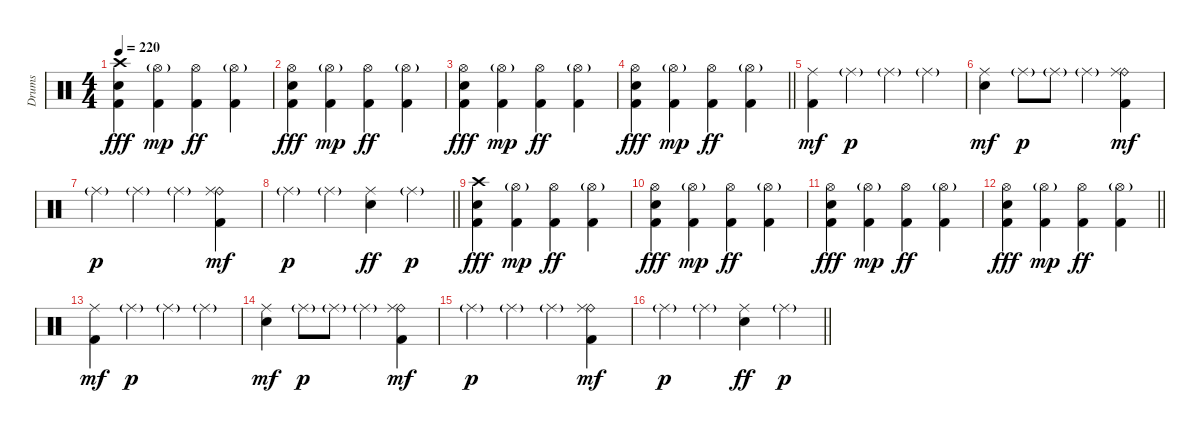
\track ("Drums" "Drums") {instrument percussion}
\staff {score}
\articulation defaults
\ts (4 4)
\tempo 220
\clef neutral
\ks c
("Crash high (hit)" "Snare (hit) 2" "Kick (hit) 2").4{dy fff} ("Hi-Hat (open)"{g} "Kick (hit) 2").4{dy mp} ("Hi-Hat (open)" "Kick (hit) 2").4{dy ff} ("Hi-Hat (open)"{g} "Kick (hit) 2").4 |
("Hi-Hat (open)" "Snare (hit) 2" "Kick (hit) 2").4{dy fff} ("Hi-Hat (open)"{g} "Kick (hit) 2").4{dy mp} ("Hi-Hat (open)" "Kick (hit) 2").4{dy ff} ("Hi-Hat (open)"{g} "Kick (hit) 2").4 |
("Hi-Hat (open)" "Snare (hit) 2" "Kick (hit) 2").4{dy fff} ("Hi-Hat (open)"{g} "Kick (hit) 2").4{dy mp} ("Hi-Hat (open)" "Kick (hit) 2").4{dy ff} ("Hi-Hat (open)"{g} "Kick (hit) 2").4 |
\barLineRight lightlight
("Hi-Hat (open)" "Snare (hit) 2" "Kick (hit) 2").4{dy fff} ("Hi-Hat (open)"{g} "Kick (hit) 2").4{dy mp} ("Hi-Hat (open)" "Kick (hit) 2").4{dy ff} ("Hi-Hat (open)"{g} "Kick (hit) 2").4 |
("Ride (middle)" "Kick (hit) 2").4{dy mf} "Ride (middle)"{g}.4{dy p} "Ride (middle)"{g}.4 "Ride (middle)"{g}.4 |
("Ride (middle)" "Snare (hit) 2").4{dy mf} "Ride (middle)"{g}.8{dy p} "Ride (middle)"{g}.8 "Ride (middle)"{g}.4 ("Ride (bell)" "Ride (middle)" "Kick (hit) 2").4{dy mf} |
"Ride (middle)"{g}.4{dy p} "Ride (middle)"{g}.4 "Ride (middle)"{g}.4 ("Ride (bell)" "Ride (middle)" "Kick (hit) 2").4{dy mf} |
\barLineRight lightlight "Ride (middle)"{g}.4{dy p} "Ride (middle)"{g}.4
("Ride (middle)" "Snare (hit) 2").4{dy ff} "Ride (middle)"{g}.4{dy p} |
("Crash high (hit)" "Snare (hit) 2" "Kick (hit) 2").4{dy fff} ("Hi-Hat (open)"{g} "Kick (hit) 2").4{dy mp} ("Hi-Hat (open)" "Kick (hit) 2").4{dy ff} ("Hi-Hat (open)"{g} "Kick (hit) 2").4 |
("Hi-Hat (open)" "Snare (hit) 2" "Kick (hit) 2").4{dy fff} ("Hi-Hat (open)"{g} "Kick (hit) 2").4{dy mp} ("Hi-Hat (open)" "Kick (hit) 2").4{dy ff} ("Hi-Hat (open)"{g} "Kick (hit) 2").4 |
("Hi-Hat (open)" "Snare (hit) 2" "Kick (hit) 2").4{dy fff} ("Hi-Hat (open)"{g} "Kick (hit) 2").4{dy mp} ("Hi-Hat (open)" "Kick (hit) 2").4{dy ff} ("Hi-Hat (open)"{g} "Kick (hit) 2").4 |
\barLineRight lightlight
("Hi-Hat (open)" "Snare (hit) 2" "Kick (hit) 2").4{dy fff} ("Hi-Hat (open)"{g} "Kick (hit) 2").4{dy mp} ("Hi-Hat (open)" "Kick (hit) 2").4{dy ff} ("Hi-Hat (open)"{g} "Kick (hit) 2").4 |
("Ride (middle)" "Kick (hit) 2").4{dy mf} "Ride (middle)"{g}.4{dy p} "Ride (middle)"{g}.4 "Ride (middle)"{g}.4 |
("Ride (middle)" "Snare (hit) 2").4{dy mf} "Ride (middle)"{g}.8{dy p} "Ride (middle)"{g}.8 "Ride (middle)"{g}.4 ("Ride (bell)" "Ride (middle)" "Kick (hit) 2").4{dy mf} |
"Ride (middle)"{g}.4{dy p} "Ride (middle)"{g}.4 "Ride (middle)"{g}.4 ("Ride (bell)" "Ride (middle)" "Kick (hit) 2").4{dy mf} |
\barLineRight lightlight "Ride (middle)"{g}.4{dy p} "Ride (middle)"{g}.4
("Ride (middle)" "Snare (hit) 2").4{dy ff} "Ride (middle)"{g}.4{dy p}
